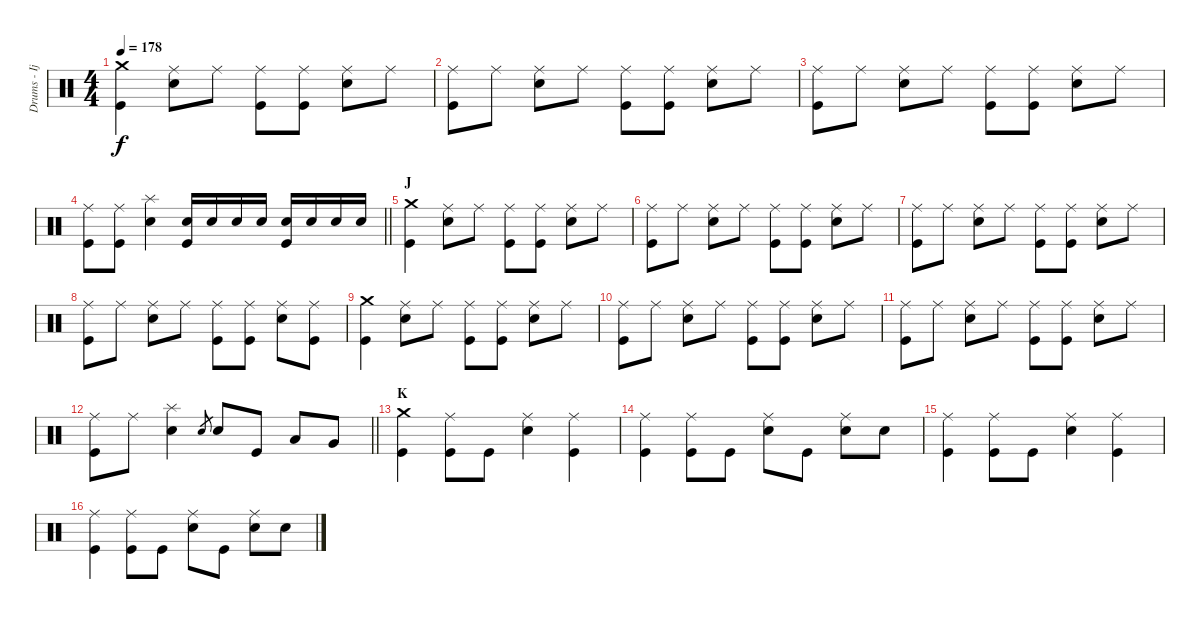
\track ("Drums - Ijichi" "Drums - Ij") {instrument percussion}
\staff {score}
\articulation defaults
\ts (4 4)
\tempo 178
\clef neutral
\ks c
("Crash medium (hit)" "Kick (hit)").4{dy f} ("Ride (middle)" "Electric Snare (hit)").8 "Ride (middle)".8 ("Ride (middle)" "Kick (hit)").8 ("Ride (middle)" "Kick (hit)").8 ("Ride (middle)" "Electric Snare (hit)").8 "Ride (middle)".8 |
("Ride (middle)" "Kick (hit)").8 "Ride (middle)".8 ("Ride (middle)" "Electric Snare (hit)").8 "Ride (middle)".8 ("Ride (middle)" "Kick (hit)").8 ("Ride (middle)" "Kick (hit)").8 ("Ride (middle)" "Electric Snare (hit)").8 "Ride (middle)".8 |
("Ride (middle)" "Kick (hit)").8 "Ride (middle)".8 ("Ride (middle)" "Electric Snare (hit)").8 "Ride (middle)".8 ("Ride (middle)" "Kick (hit)").8 ("Ride (middle)" "Kick (hit)").8 ("Ride (middle)" "Electric Snare (hit)").8 "Ride (middle)".8 |
\barLineRight lightlight
("Ride (middle)" "Kick (hit)").8 ("Ride (middle)" "Kick (hit)").8 ("Splash (hit)" "Electric Snare (hit)").4 ("Electric Snare (hit)" "Kick (hit)").16 "Electric Snare (hit)".16 "Electric Snare (hit)".16 "Electric Snare (hit)".16 ("Electric Snare (hit)" "Kick (hit)").16 "Electric Snare (hit)".16 "Electric Snare (hit)".16 "Electric Snare (hit)".16 |
\section ("" "J")
("Crash medium (hit)" "Kick (hit)").4 ("Ride (middle)" "Electric Snare (hit)").8 "Ride (middle)".8 ("Ride (middle)" "Kick (hit)").8 ("Ride (middle)" "Kick (hit)").8 ("Ride (middle)" "Electric Snare (hit)").8 "Ride (middle)".8 |
("Ride (middle)" "Kick (hit)").8 "Ride (middle)".8 ("Ride (middle)" "Electric Snare (hit)").8 "Ride (middle)".8 ("Ride (middle)" "Kick (hit)").8 ("Ride (middle)" "Kick (hit)").8 ("Ride (middle)" "Electric Snare (hit)").8 "Ride (middle)".8 |
("Ride (middle)" "Kick (hit)").8 "Ride (middle)".8 ("Ride (middle)" "Electric Snare (hit)").8 "Ride (middle)".8 ("Ride (middle)" "Kick (hit)").8 ("Ride (middle)" "Kick (hit)").8 ("Ride (middle)" "Electric Snare (hit)").8 "Ride (middle)".8 |
("Ride (middle)" "Kick (hit)").8 "Ride (middle)".8 ("Ride (middle)" "Electric Snare (hit)").8 "Ride (middle)".8 ("Ride (middle)" "Kick (hit)").8 ("Ride (middle)" "Kick (hit)").8 ("Ride (middle)" "Electric Snare (hit)").8 ("Ride (middle)" "Kick (hit)").8 |
("Crash medium (hit)" "Kick (hit)").4 ("Ride (middle)" "Electric Snare (hit)").8 "Ride (middle)".8 ("Ride (middle)" "Kick (hit)").8 ("Ride (middle)" "Kick (hit)").8 ("Ride (middle)" "Electric Snare (hit)").8 "Ride (middle)".8 |
("Ride (middle)" "Kick (hit)").8 "Ride (middle)".8 ("Ride (middle)" "Electric Snare (hit)").8 "Ride (middle)".8 ("Ride (middle)" "Kick (hit)").8 ("Ride (middle)" "Kick (hit)").8 ("Ride (middle)" "Electric Snare (hit)").8 "Ride (middle)".8 |
("Ride (middle)" "Kick (hit)").8 "Ride (middle)".8 ("Ride (middle)" "Electric Snare (hit)").8 "Ride (middle)".8 ("Ride (middle)" "Kick (hit)").8 ("Ride (middle)" "Kick (hit)").8 ("Ride (middle)" "Electric Snare (hit)").8 "Ride (middle)".8 |
\barLineRight lightlight
("Ride (middle)" "Kick (hit)").8 "Ride (middle)".8 ("Splash (hit)" "Electric Snare (hit)").4 "Electric Snare (hit)".8{gr} "Electric Snare (hit)".8 "Kick (hit)".8 "Low Tom (hit)".8 "Very Low Tom (hit)".8 |
\section ("" "K")
("Crash medium (hit)" "Kick (hit)").4 ("Ride (middle)" "Kick (hit)").8 "Kick (hit)".8 ("Ride (middle)" "Electric Snare (hit)").4 ("Ride (middle)" "Kick (hit)").4 |
("Ride (middle)" "Kick (hit)").4 ("Ride (middle)" "Kick (hit)").8 "Kick (hit)".8 ("Ride (middle)" "Electric Snare (hit)").8 "Kick (hit)".8 ("Ride (middle)" "Electric Snare (hit)").8 "Electric Snare (hit)".8 |
("Ride (middle)" "Kick (hit)").4 ("Ride (middle)" "Kick (hit)").8 "Kick (hit)".8 ("Ride (middle)" "Electric Snare (hit)").4 ("Ride (middle)" "Kick (hit)").4 |
("Ride (middle)" "Kick (hit)").4 ("Ride (middle)" "Kick (hit)").8 "Kick (hit)".8 ("Ride (middle)" "Electric Snare (hit)").8 "Kick (hit)".8 ("Ride (middle)" "Electric Snare (hit)").8 "Electric Snare (hit)".8
